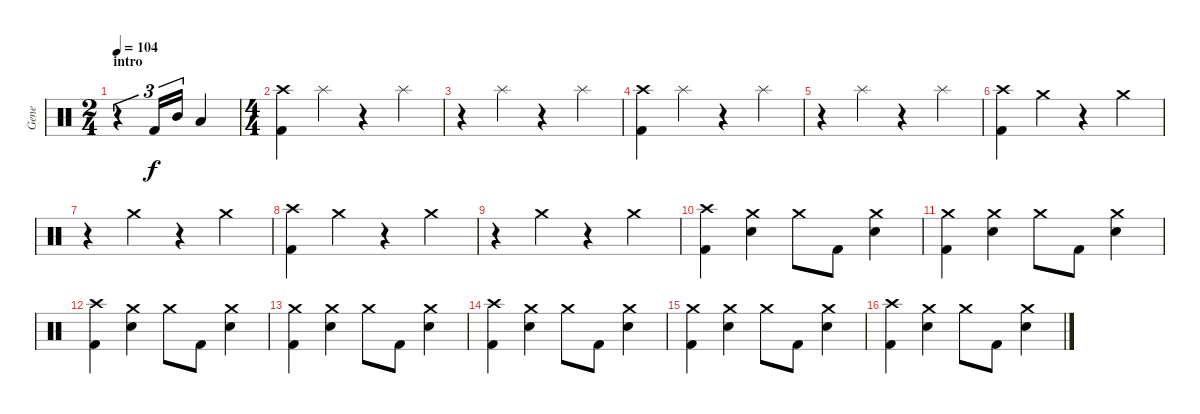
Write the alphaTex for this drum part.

\track ("Gene" "Gene") {instrument percussion}
\staff {score}
\articulation defaults
\ts (2 4)
\section ("" "intro")
\tempo 104
\tempo 110
\tempo 104
\clef neutral
\ks c
r.4{tu (3 2) dy f} "Kick (hit) 2".16{tu (3 2)} "Mid Tom (hit)".16{tu (3 2)} "Low Tom (hit)".4 |
\ts (4 4)
("Crash high (hit)" "Kick (hit) 2").4 "Splash (hit)".4 r.4 "Splash (hit)".4 |
r.4 "Splash (hit)".4 r.4 "Splash (hit)".4 |
("Crash high (hit)" "Kick (hit) 2").4 "Splash (hit)".4 r.4 "Splash (hit)".4 |
r.4 "Splash (hit)".4 r.4 "Splash (hit)".4 |
("Crash high (hit)" "Kick (hit) 2").4 "Crash medium (hit)".4 r.4 "Crash medium (hit)".4 |
r.4 "Crash medium (hit)".4 r.4 "Crash medium (hit)".4 |
("Crash high (hit)" "Kick (hit) 2").4 "Crash medium (hit)".4 r.4 "Crash medium (hit)".4 |
r.4 "Crash medium (hit)".4 r.4 "Crash medium (hit)".4 |
("Crash high (hit)" "Kick (hit) 2").4 ("Crash medium (hit)" "Snare (hit) 2").4 "Crash medium (hit)".8 "Kick (hit) 2".8 ("Crash medium (hit)" "Snare (hit) 2").4 |
("Crash medium (hit)" "Kick (hit) 2").4 ("Crash medium (hit)" "Snare (hit) 2").4 "Crash medium (hit)".8 "Kick (hit) 2".8 ("Crash medium (hit)" "Snare (hit) 2").4 |
("Crash high (hit)" "Kick (hit) 2").4 ("Crash medium (hit)" "Snare (hit) 2").4 "Crash medium (hit)".8 "Kick (hit) 2".8 ("Crash medium (hit)" "Snare (hit) 2").4 |
("Crash medium (hit)" "Kick (hit) 2").4 ("Crash medium (hit)" "Snare (hit) 2").4 "Crash medium (hit)".8 "Kick (hit) 2".8 ("Crash medium (hit)" "Snare (hit) 2").4 |
("Crash high (hit)" "Kick (hit) 2").4 ("Crash medium (hit)" "Snare (hit) 2").4 "Crash medium (hit)".8 "Kick (hit) 2".8 ("Crash medium (hit)" "Snare (hit) 2").4 |
("Crash medium (hit)" "Kick (hit) 2").4 ("Crash medium (hit)" "Snare (hit) 2").4 "Crash medium (hit)".8 "Kick (hit) 2".8 ("Crash medium (hit)" "Snare (hit) 2").4 |
("Crash high (hit)" "Kick (hit) 2").4 ("Crash medium (hit)" "Snare (hit) 2").4 "Crash medium (hit)".8 "Kick (hit) 2".8 ("Crash medium (hit)" "Snare (hit) 2").4
